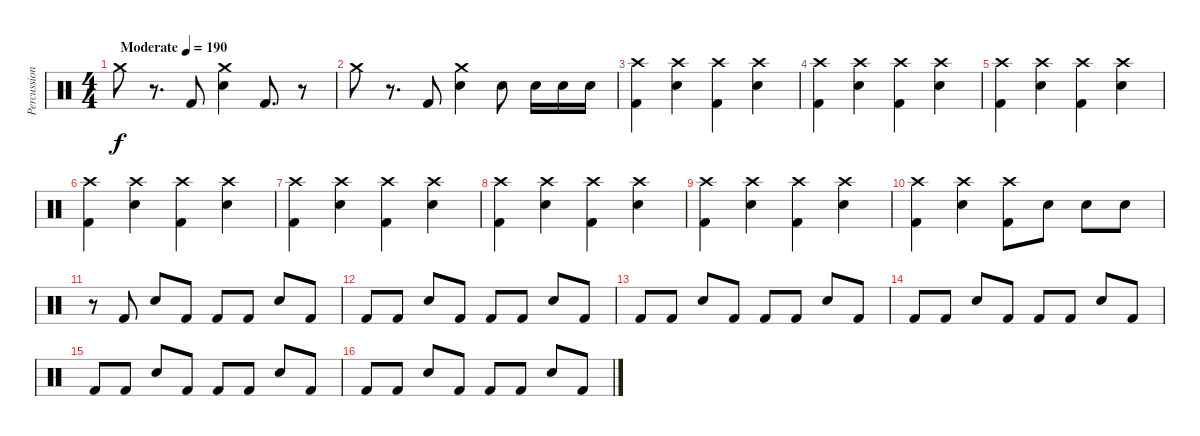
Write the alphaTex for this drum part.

\track ("Percussions" "Percussion") {instrument percussion}
\staff {score}
\articulation defaults
\ts (4 4)
\tempo (190 "Moderate")
\clef neutral
\ks c "Crash medium (hit)".8{dy f}
r.8{d} "Kick (hit) 2".8 ("Crash medium (hit)" "Electric Snare (hit)").4 "Kick (hit) 2".8{d} r.8 |
"Crash medium (hit)".8 r.8{d} "Kick (hit) 2".8 ("Crash medium (hit)" "Electric Snare (hit)").4 "Electric Snare (hit)".8 "Electric Snare (hit)".16 "Electric Snare (hit)".16 "Electric Snare (hit)".16 |
("Crash high (hit)" "Kick (hit) 2").4 ("Crash high (hit)" "Electric Snare (hit)").4 ("Crash high (hit)" "Kick (hit) 2").4 ("Crash high (hit)" "Electric Snare (hit)").4 |
("Crash high (hit)" "Kick (hit) 2").4 ("Crash high (hit)" "Electric Snare (hit)").4 ("Crash high (hit)" "Kick (hit) 2").4 ("Crash high (hit)" "Electric Snare (hit)").4 |
("Crash high (hit)" "Kick (hit) 2").4 ("Crash high (hit)" "Electric Snare (hit)").4 ("Crash high (hit)" "Kick (hit) 2").4 ("Crash high (hit)" "Electric Snare (hit)").4 |
("Crash high (hit)" "Kick (hit) 2").4 ("Crash high (hit)" "Electric Snare (hit)").4 ("Crash high (hit)" "Kick (hit) 2").4 ("Crash high (hit)" "Electric Snare (hit)").4 |
("Crash high (hit)" "Kick (hit) 2").4 ("Crash high (hit)" "Electric Snare (hit)").4 ("Crash high (hit)" "Kick (hit) 2").4 ("Crash high (hit)" "Electric Snare (hit)").4 |
("Crash high (hit)" "Kick (hit) 2").4 ("Crash high (hit)" "Electric Snare (hit)").4 ("Crash high (hit)" "Kick (hit) 2").4 ("Crash high (hit)" "Electric Snare (hit)").4 |
("Crash high (hit)" "Kick (hit) 2").4 ("Crash high (hit)" "Electric Snare (hit)").4 ("Crash high (hit)" "Kick (hit) 2").4 ("Crash high (hit)" "Electric Snare (hit)").4 |
("Crash high (hit)" "Kick (hit) 2").4 ("Crash high (hit)" "Electric Snare (hit)").4 ("Crash high (hit)" "Kick (hit) 2").8 "Electric Snare (hit)".8 "Electric Snare (hit)".8 "Electric Snare (hit)".8 |
r.8 "Kick (hit) 2".8 "Electric Snare (hit)".8 "Kick (hit) 2".8 "Kick (hit) 2".8 "Kick (hit) 2".8 "Electric Snare (hit)".8 "Kick (hit) 2".8 |
"Kick (hit) 2".8 "Kick (hit) 2".8 "Electric Snare (hit)".8 "Kick (hit) 2".8 "Kick (hit) 2".8 "Kick (hit) 2".8 "Electric Snare (hit)".8 "Kick (hit) 2".8 |
"Kick (hit) 2".8 "Kick (hit) 2".8 "Electric Snare (hit)".8 "Kick (hit) 2".8 "Kick (hit) 2".8 "Kick (hit) 2".8 "Electric Snare (hit)".8 "Kick (hit) 2".8 |
"Kick (hit) 2".8 "Kick (hit) 2".8 "Electric Snare (hit)".8 "Kick (hit) 2".8 "Kick (hit) 2".8 "Kick (hit) 2".8 "Electric Snare (hit)".8 "Kick (hit) 2".8 |
"Kick (hit) 2".8 "Kick (hit) 2".8 "Electric Snare (hit)".8 "Kick (hit) 2".8 "Kick (hit) 2".8 "Kick (hit) 2".8 "Electric Snare (hit)".8 "Kick (hit) 2".8 |
"Kick (hit) 2".8 "Kick (hit) 2".8 "Electric Snare (hit)".8 "Kick (hit) 2".8 "Kick (hit) 2".8 "Kick (hit) 2".8 "Electric Snare (hit)".8 "Kick (hit) 2".8
